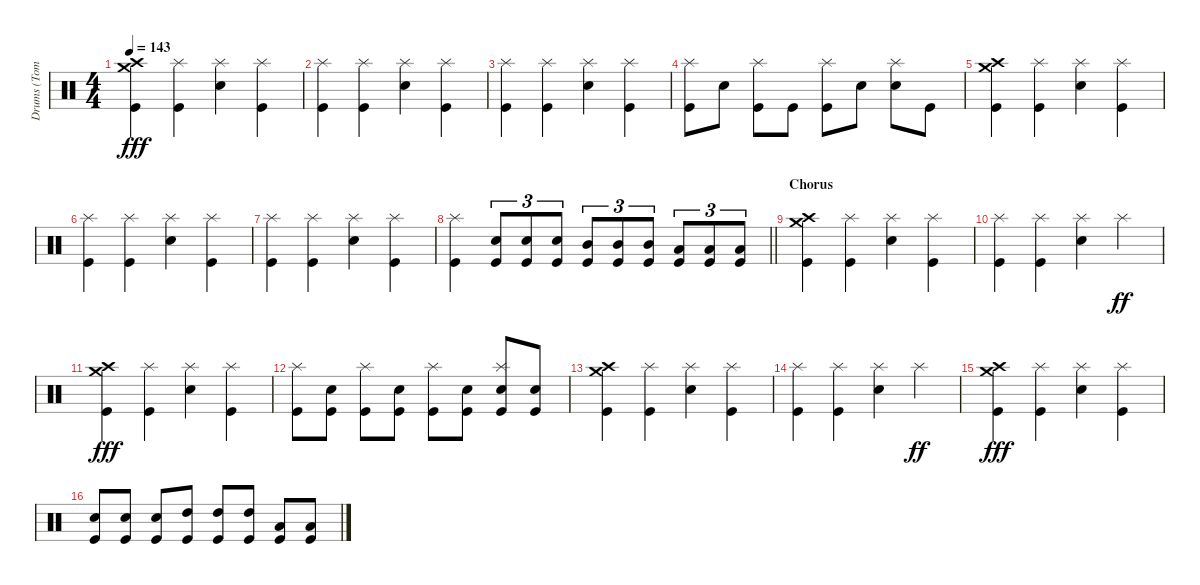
\track ("Drums (Tommy Clufetos)" "Drums (Tom") {instrument percussion}
\staff {score}
\articulation defaults
\ts (4 4)
\tempo 143
\clef neutral
\ks c
("Crash high (hit)" "Crash medium (hit)" "Kick (hit)").4{dy fff} ("Splash (hit)" "Kick (hit)").4 ("Splash (hit)" "Electric Snare (hit)").4 ("Splash (hit)" "Kick (hit)").4 |
("Splash (hit)" "Kick (hit)").4 ("Splash (hit)" "Kick (hit)").4 ("Splash (hit)" "Electric Snare (hit)").4 ("Splash (hit)" "Kick (hit)").4 |
("Splash (hit)" "Kick (hit)").4 ("Splash (hit)" "Kick (hit)").4 ("Splash (hit)" "Electric Snare (hit)").4 ("Splash (hit)" "Kick (hit)").4 |
("Splash (hit)" "Kick (hit)").8 "Electric Snare (hit)".8 ("Splash (hit)" "Kick (hit)").8 "Kick (hit)".8 ("Splash (hit)" "Kick (hit)").8 "Electric Snare (hit)".8 ("Splash (hit)" "Electric Snare (hit)").8 "Kick (hit)".8 |
("Crash high (hit)" "Crash medium (hit)" "Kick (hit)").4 ("Splash (hit)" "Kick (hit)").4 ("Splash (hit)" "Electric Snare (hit)").4 ("Splash (hit)" "Kick (hit)").4 |
("Splash (hit)" "Kick (hit)").4 ("Splash (hit)" "Kick (hit)").4 ("Splash (hit)" "Electric Snare (hit)").4 ("Splash (hit)" "Kick (hit)").4 |
("Splash (hit)" "Kick (hit)").4 ("Splash (hit)" "Kick (hit)").4 ("Splash (hit)" "Electric Snare (hit)").4 ("Splash (hit)" "Kick (hit)").4 |
\barLineRight lightlight
("Splash (hit)" "Kick (hit)").4 ("Electric Snare (hit)" "Kick (hit)").8{tu (3 2)} ("Electric Snare (hit)" "Kick (hit)").8{tu (3 2)} ("Electric Snare (hit)" "Kick (hit)").8{tu (3 2)} ("Mid Tom (hit)" "Kick (hit)").8{tu (3 2)} ("Mid Tom (hit)" "Kick (hit)").8{tu (3 2)} ("Mid Tom (hit)" "Kick (hit)").8{tu (3 2)} ("Low Tom (hit)" "Kick (hit)").8{tu (3 2)} ("Low Tom (hit)" "Kick (hit)").8{tu (3 2)} ("Low Tom (hit)" "Kick (hit)").8{tu (3 2)} |
\section ("" "Chorus")
("Crash high (hit)" "Crash medium (hit)" "Kick (hit)").4 ("Splash (hit)" "Kick (hit)").4 ("Splash (hit)" "Electric Snare (hit)").4 ("Splash (hit)" "Kick (hit)").4 |
("Splash (hit)" "Kick (hit)").4 ("Splash (hit)" "Kick (hit)").4 ("Splash (hit)" "Electric Snare (hit)").4 "Splash (hit)".4{dy ff} |
("Crash high (hit)" "Crash medium (hit)" "Kick (hit)").4{dy fff} ("Splash (hit)" "Kick (hit)").4 ("Splash (hit)" "Electric Snare (hit)").4 ("Splash (hit)" "Kick (hit)").4 |
("Splash (hit)" "Kick (hit)").8 ("Electric Snare (hit)" "Kick (hit)").8 ("Splash (hit)" "Kick (hit)").8 ("Electric Snare (hit)" "Kick (hit)").8 ("Splash (hit)" "Kick (hit)").8 ("Electric Snare (hit)" "Kick (hit)").8 ("Splash (hit)" "Electric Snare (hit)" "Kick (hit)").8 ("Electric Snare (hit)" "Kick (hit)").8 |
("Crash high (hit)" "Crash medium (hit)" "Kick (hit)").4 ("Splash (hit)" "Kick (hit)").4 ("Splash (hit)" "Electric Snare (hit)").4 ("Splash (hit)" "Kick (hit)").4 |
("Splash (hit)" "Kick (hit)").4 ("Splash (hit)" "Kick (hit)").4 ("Splash (hit)" "Electric Snare (hit)").4 "Splash (hit)".4{dy ff} |
("Crash high (hit)" "Crash medium (hit)" "Kick (hit)").4{dy fff} ("Splash (hit)" "Kick (hit)").4 ("Splash (hit)" "Electric Snare (hit)").4 ("Splash (hit)" "Kick (hit)").4 |
("Electric Snare (hit)" "Kick (hit)").8 ("Electric Snare (hit)" "Kick (hit)").8 ("Electric Snare (hit)" "Kick (hit)").8 ("High Tom (hit)" "Kick (hit)").8 ("High Tom (hit)" "Kick (hit)").8 ("High Tom (hit)" "Kick (hit)").8 ("Low Tom (hit)" "Kick (hit)").8 ("Low Tom (hit)" "Kick (hit)").8
